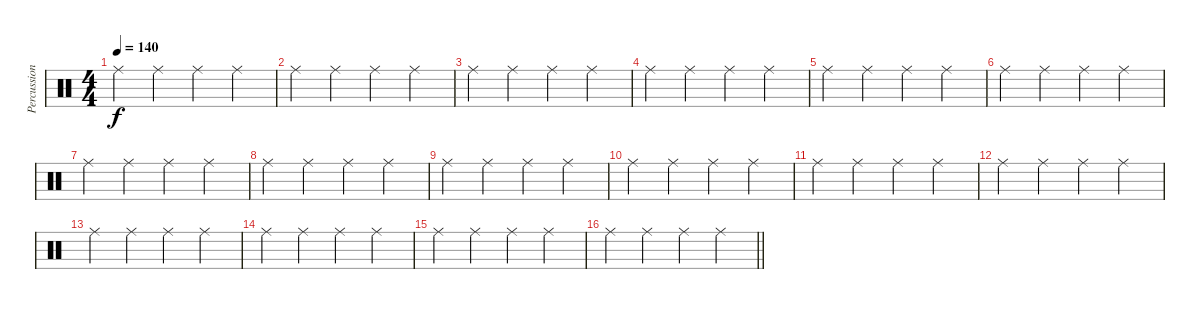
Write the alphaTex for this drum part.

\track ("Percussion" "Percussion") {instrument percussion}
\staff {score}
\articulation defaults
\ts (4 4)
\tempo 140
\clef neutral
\ks c "Ride (middle)".4{dy f} "Ride (middle)".4 "Ride (middle)".4 "Ride (middle)".4
|
"Ride (middle)".4 "Ride (middle)".4 "Ride (middle)".4 "Ride (middle)".4 |
"Ride (middle)".4 "Ride (middle)".4 "Ride (middle)".4 "Ride (middle)".4 |
"Ride (middle)".4 "Ride (middle)".4 "Ride (middle)".4 "Ride (middle)".4 |
"Ride (middle)".4 "Ride (middle)".4 "Ride (middle)".4 "Ride (middle)".4 |
"Ride (middle)".4 "Ride (middle)".4 "Ride (middle)".4 "Ride (middle)".4 |
"Ride (middle)".4 "Ride (middle)".4 "Ride (middle)".4 "Ride (middle)".4 |
"Ride (middle)".4 "Ride (middle)".4 "Ride (middle)".4 "Ride (middle)".4 |
"Ride (middle)".4 "Ride (middle)".4 "Ride (middle)".4 "Ride (middle)".4 |
"Ride (middle)".4 "Ride (middle)".4 "Ride (middle)".4 "Ride (middle)".4 |
"Ride (middle)".4 "Ride (middle)".4 "Ride (middle)".4 "Ride (middle)".4 |
"Ride (middle)".4 "Ride (middle)".4 "Ride (middle)".4 "Ride (middle)".4 |
"Ride (middle)".4 "Ride (middle)".4 "Ride (middle)".4 "Ride (middle)".4 |
"Ride (middle)".4 "Ride (middle)".4 "Ride (middle)".4 "Ride (middle)".4 |
"Ride (middle)".4 "Ride (middle)".4 "Ride (middle)".4 "Ride (middle)".4 |
\barLineRight lightlight "Ride (middle)".4 "Ride (middle)".4 "Ride (middle)".4 "Ride (middle)".4
